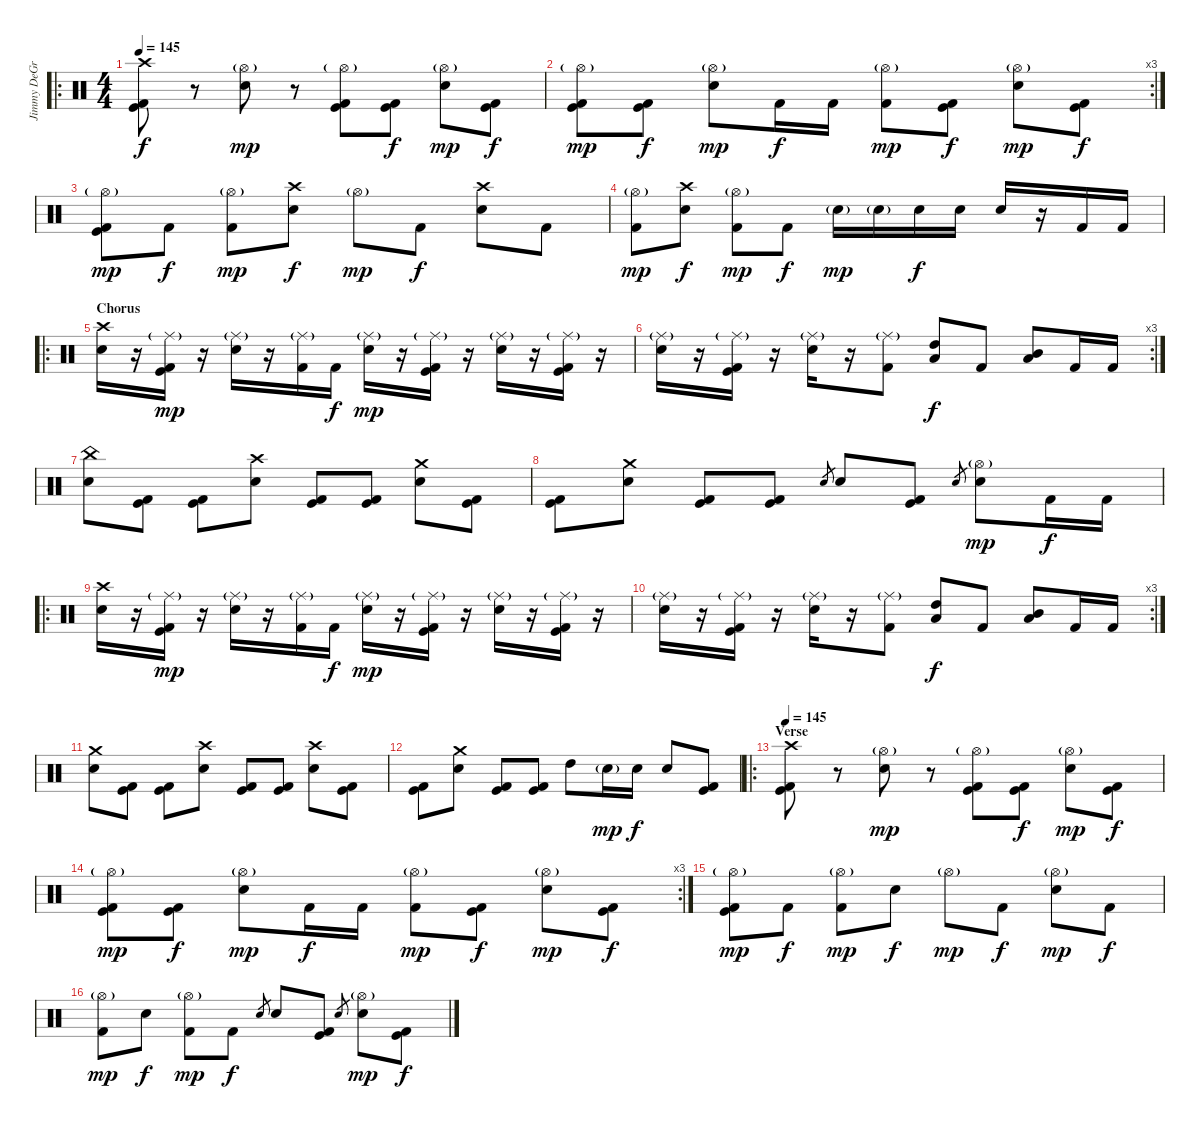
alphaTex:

\track ("Jimmy DeGrasso" "Jimmy DeGr") {instrument percussion}
\staff {score}
\articulation defaults
\ro
\ts (4 4)
\tempo 145
\clef neutral
\ks c
("Crash high (hit)" "Kick (hit)" "Kick (hit) 2").8{dy f} r.8 ("Hi-Hat (open)"{g} "Electric Snare (hit)").8{dy mp} r.8 ("Hi-Hat (open)"{g} "Kick (hit)" "Kick (hit) 2").8 ("Kick (hit)" "Kick (hit) 2").8{dy f} ("Hi-Hat (open)"{g} "Electric Snare (hit)").8{dy mp} ("Kick (hit)" "Kick (hit) 2").8{dy f} |
\rc 3
("Hi-Hat (open)"{g} "Kick (hit)" "Kick (hit) 2").8{dy mp} ("Kick (hit)" "Kick (hit) 2").8{dy f} ("Hi-Hat (open)"{g} "Electric Snare (hit)").8{dy mp} "Kick (hit) 2".16{dy f} "Kick (hit) 2".16 ("Hi-Hat (open)"{g} "Kick (hit) 2").8{dy mp} ("Kick (hit)" "Kick (hit) 2").8{dy f} ("Hi-Hat (open)"{g} "Electric Snare (hit)").8{dy mp} ("Kick (hit)" "Kick (hit) 2").8{dy f} |
("Hi-Hat (open)"{g} "Kick (hit)" "Kick (hit) 2").8{dy mp} "Kick (hit) 2".8{dy f} ("Hi-Hat (open)"{g} "Kick (hit) 2").8{dy mp} ("Crash high (hit)" "Electric Snare (hit)").8{dy f} "Hi-Hat (open)"{g}.8{dy mp} "Kick (hit) 2".8{dy f} ("Crash high (hit)" "Electric Snare (hit)").8 "Kick (hit) 2".8 |
("Hi-Hat (open)"{g} "Kick (hit) 2").8{dy mp} ("Crash high (hit)" "Electric Snare (hit)").8{dy f} ("Hi-Hat (open)"{g} "Kick (hit) 2").8{dy mp} "Kick (hit) 2".8{dy f} "Electric Snare (hit)"{g}.16{dy mp} "Electric Snare (hit)"{g}.16 "Electric Snare (hit)".16{dy f} "Electric Snare (hit)".16 "Electric Snare (hit)".16 r.16 "Kick (hit) 2".16 "Kick (hit) 2".16 |
\ro
\section ("" "Chorus")
("Crash high (hit)" "Electric Snare (hit)").16 r.16 ("Ride (middle)"{g} "Kick (hit)" "Kick (hit) 2").16{dy mp} r.16 ("Ride (middle)"{g} "Electric Snare (hit)").16 r.16 ("Ride (middle)"{g} "Kick (hit) 2").16 "Kick (hit) 2".16{dy f} ("Ride (middle)"{g} "Electric Snare (hit)").16{dy mp} r.16 ("Ride (middle)"{g} "Kick (hit)" "Kick (hit) 2").16 r.16 ("Ride (middle)"{g} "Electric Snare (hit)").16 r.16 ("Ride (middle)"{g} "Kick (hit)" "Kick (hit) 2").16 r.16 |
\rc 3
("Ride (middle)"{g} "Electric Snare (hit)").16 r.16 ("Ride (middle)"{g} "Kick (hit)" "Kick (hit) 2").16 r.16 ("Ride (middle)"{g} "Electric Snare (hit)").16 r.16 ("Ride (middle)"{g} "Kick (hit) 2").8 ("High Tom (hit)" "Low Floor Tom (hit)").8{dy f} "Kick (hit) 2".8 ("Mid Tom (hit)" "Low Floor Tom (hit)").8 "Kick (hit) 2".16 "Kick (hit) 2".16 |
("China (hit)" "Electric Snare (hit)").8 ("Kick (hit)" "Kick (hit) 2").8 ("Kick (hit)" "Kick (hit) 2").8 ("Crash high (hit)" "Electric Snare (hit)").8 ("Kick (hit)" "Kick (hit) 2").8 ("Kick (hit)" "Kick (hit) 2").8 ("Crash medium (hit)" "Electric Snare (hit)").8 ("Kick (hit)" "Kick (hit) 2").8 |
("Kick (hit)" "Kick (hit) 2").8 ("Crash medium (hit)" "Electric Snare (hit)").8 ("Kick (hit)" "Kick (hit) 2").8 ("Kick (hit)" "Kick (hit) 2").8 "Electric Snare (hit)".8{gr} "Electric Snare (hit)".8 ("Kick (hit)" "Kick (hit) 2").8 "Electric Snare (hit)".8{gr} ("Hi-Hat (open)"{g} "Electric Snare (hit)").8{dy mp} "Kick (hit) 2".16{dy f} "Kick (hit) 2".16 |
\ro
("Crash high (hit)" "Electric Snare (hit)").16 r.16 ("Ride (middle)"{g} "Kick (hit)" "Kick (hit) 2").16{dy mp} r.16 ("Ride (middle)"{g} "Electric Snare (hit)").16 r.16 ("Ride (middle)"{g} "Kick (hit) 2").16 "Kick (hit) 2".16{dy f} ("Ride (middle)"{g} "Electric Snare (hit)").16{dy mp} r.16 ("Ride (middle)"{g} "Kick (hit)" "Kick (hit) 2").16 r.16 ("Ride (middle)"{g} "Electric Snare (hit)").16 r.16 ("Ride (middle)"{g} "Kick (hit)" "Kick (hit) 2").16 r.16 |
\rc 3
("Ride (middle)"{g} "Electric Snare (hit)").16 r.16 ("Ride (middle)"{g} "Kick (hit)" "Kick (hit) 2").16 r.16 ("Ride (middle)"{g} "Electric Snare (hit)").16 r.16 ("Ride (middle)"{g} "Kick (hit) 2").8 ("High Tom (hit)" "Low Floor Tom (hit)").8{dy f} "Kick (hit) 2".8 ("Mid Tom (hit)" "Low Floor Tom (hit)").8 "Kick (hit) 2".16 "Kick (hit) 2".16 |
("Crash medium (hit)" "Electric Snare (hit)").8 ("Kick (hit)" "Kick (hit) 2").8 ("Kick (hit)" "Kick (hit) 2").8 ("Crash high (hit)" "Electric Snare (hit)").8 ("Kick (hit)" "Kick (hit) 2").8 ("Kick (hit)" "Kick (hit) 2").8 ("Crash high (hit)" "Electric Snare (hit)").8 ("Kick (hit)" "Kick (hit) 2").8 |
("Kick (hit)" "Kick (hit) 2").8 ("Crash medium (hit)" "Electric Snare (hit)").8 ("Kick (hit)" "Kick (hit) 2").8 ("Kick (hit)" "Kick (hit) 2").8 "High Tom (hit)".8 "Electric Snare (hit)"{g}.16{dy mp} "Electric Snare (hit)".16{dy f} "Electric Snare (hit)".8 ("Kick (hit)" "Kick (hit) 2").8 |
\ro
\section ("" "Verse")
\tempo 145
("Crash high (hit)" "Kick (hit)" "Kick (hit) 2").8 r.8 ("Hi-Hat (open)"{g} "Electric Snare (hit)").8{dy mp} r.8 ("Hi-Hat (open)"{g} "Kick (hit)" "Kick (hit) 2").8 ("Kick (hit)" "Kick (hit) 2").8{dy f} ("Hi-Hat (open)"{g} "Electric Snare (hit)").8{dy mp} ("Kick (hit)" "Kick (hit) 2").8{dy f} |
\rc 3
("Hi-Hat (open)"{g} "Kick (hit)" "Kick (hit) 2").8{dy mp} ("Kick (hit)" "Kick (hit) 2").8{dy f} ("Hi-Hat (open)"{g} "Electric Snare (hit)").8{dy mp} "Kick (hit) 2".16{dy f} "Kick (hit) 2".16 ("Hi-Hat (open)"{g} "Kick (hit) 2").8{dy mp} ("Kick (hit)" "Kick (hit) 2").8{dy f} ("Hi-Hat (open)"{g} "Electric Snare (hit)").8{dy mp} ("Kick (hit)" "Kick (hit) 2").8{dy f} |
("Hi-Hat (open)"{g} "Kick (hit)" "Kick (hit) 2").8{dy mp} "Kick (hit) 2".8{dy f} ("Hi-Hat (open)"{g} "Kick (hit) 2").8{dy mp} "Electric Snare (hit)".8{dy f} "Hi-Hat (open)"{g}.8{dy mp} "Kick (hit) 2".8{dy f} ("Hi-Hat (open)"{g} "Electric Snare (hit)").8{dy mp} "Kick (hit) 2".8{dy f} |
("Hi-Hat (open)"{g} "Kick (hit) 2").8{dy mp} "Electric Snare (hit)".8{dy f} ("Hi-Hat (open)"{g} "Kick (hit) 2").8{dy mp} "Kick (hit) 2".8{dy f} "Electric Snare (hit)".8{gr} "Electric Snare (hit)".8 ("Kick (hit)" "Kick (hit) 2").8 "Electric Snare (hit)".8{gr} ("Hi-Hat (open)"{g} "Electric Snare (hit)").8{dy mp} ("Kick (hit)" "Kick (hit) 2").8{dy f}
